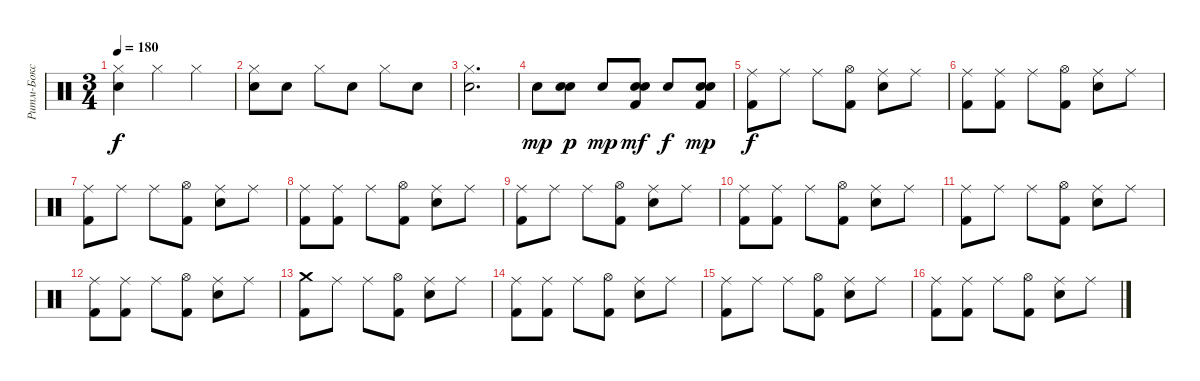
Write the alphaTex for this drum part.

\track ("Ритм-Бокс" "Ритм-Бокс") {instrument percussion}
\staff {score}
\articulation defaults
\ts (3 4)
\tempo 180
\clef neutral
\ks c
("Hi-Hat (closed)" "Electric Snare (hit)").4{dy f} "Hi-Hat (closed)".4 "Hi-Hat (closed)".4 |
("Hi-Hat (closed)" "Electric Snare (hit)").8 "Electric Snare (hit)".8 "Hi-Hat (closed)".8 "Electric Snare (hit)".8 "Hi-Hat (closed)".8 "Electric Snare (hit)".8 |
("Hi-Hat (closed)" "Electric Snare (hit)").2{d} |
"Electric Snare (hit)".8{dy mp} ("Electric Snare (hit)" "Snare (hit) 2").8{dy p} "Snare (hit) 2".8{dy mp} ("Electric Snare (hit)" "Kick (hit) 2" "Snare (hit) 2").8{dy mf} "Snare (hit) 2".8{dy f} ("Snare (hit) 2" "Kick (hit) 2" "Electric Snare (hit)").8{dy mp} |
("Ride (middle)" "Kick (hit) 2").8{dy f} "Ride (middle)".8 "Ride (middle)".8 ("Hi-Hat (open)" "Kick (hit) 2").8 ("Ride (middle)" "Snare (hit) 2").8 "Ride (middle)".8 |
("Ride (middle)" "Kick (hit) 2").8 ("Ride (middle)" "Kick (hit) 2").8 "Ride (middle)".8 ("Hi-Hat (open)" "Kick (hit) 2").8 ("Ride (middle)" "Snare (hit) 2").8 "Ride (middle)".8 |
("Ride (middle)" "Kick (hit) 2").8 "Ride (middle)".8 "Ride (middle)".8 ("Hi-Hat (open)" "Kick (hit) 2").8 ("Ride (middle)" "Snare (hit) 2").8 "Ride (middle)".8 |
("Ride (middle)" "Kick (hit) 2").8 ("Ride (middle)" "Kick (hit) 2").8 "Ride (middle)".8 ("Hi-Hat (open)" "Kick (hit) 2").8 ("Ride (middle)" "Snare (hit) 2").8 "Ride (middle)".8 |
("Ride (middle)" "Kick (hit) 2").8 "Ride (middle)".8 "Ride (middle)".8 ("Hi-Hat (open)" "Kick (hit) 2").8 ("Ride (middle)" "Snare (hit) 2").8 "Ride (middle)".8 |
("Ride (middle)" "Kick (hit) 2").8 ("Ride (middle)" "Kick (hit) 2").8 "Ride (middle)".8 ("Hi-Hat (open)" "Kick (hit) 2").8 ("Ride (middle)" "Snare (hit) 2").8 "Ride (middle)".8 |
("Ride (middle)" "Kick (hit) 2").8 "Ride (middle)".8 "Ride (middle)".8 ("Hi-Hat (open)" "Kick (hit) 2").8 ("Ride (middle)" "Snare (hit) 2").8 "Ride (middle)".8 |
("Ride (middle)" "Kick (hit) 2").8 ("Ride (middle)" "Kick (hit) 2").8 "Ride (middle)".8 ("Hi-Hat (open)" "Kick (hit) 2").8 ("Ride (middle)" "Snare (hit) 2").8 "Ride (middle)".8 |
("Crash medium (hit)" "Kick (hit) 2").8 "Ride (middle)".8 "Ride (middle)".8 ("Hi-Hat (open)" "Kick (hit) 2").8 ("Ride (middle)" "Snare (hit) 2").8 "Ride (middle)".8 |
("Ride (middle)" "Kick (hit) 2").8 ("Ride (middle)" "Kick (hit) 2").8 "Ride (middle)".8 ("Hi-Hat (open)" "Kick (hit) 2").8 ("Ride (middle)" "Snare (hit) 2").8 "Ride (middle)".8 |
("Ride (middle)" "Kick (hit) 2").8 "Ride (middle)".8 "Ride (middle)".8 ("Hi-Hat (open)" "Kick (hit) 2").8 ("Ride (middle)" "Snare (hit) 2").8 "Ride (middle)".8 |
("Ride (middle)" "Kick (hit) 2").8 ("Ride (middle)" "Kick (hit) 2").8 "Ride (middle)".8 ("Hi-Hat (open)" "Kick (hit) 2").8 ("Ride (middle)" "Snare (hit) 2").8 "Ride (middle)".8
